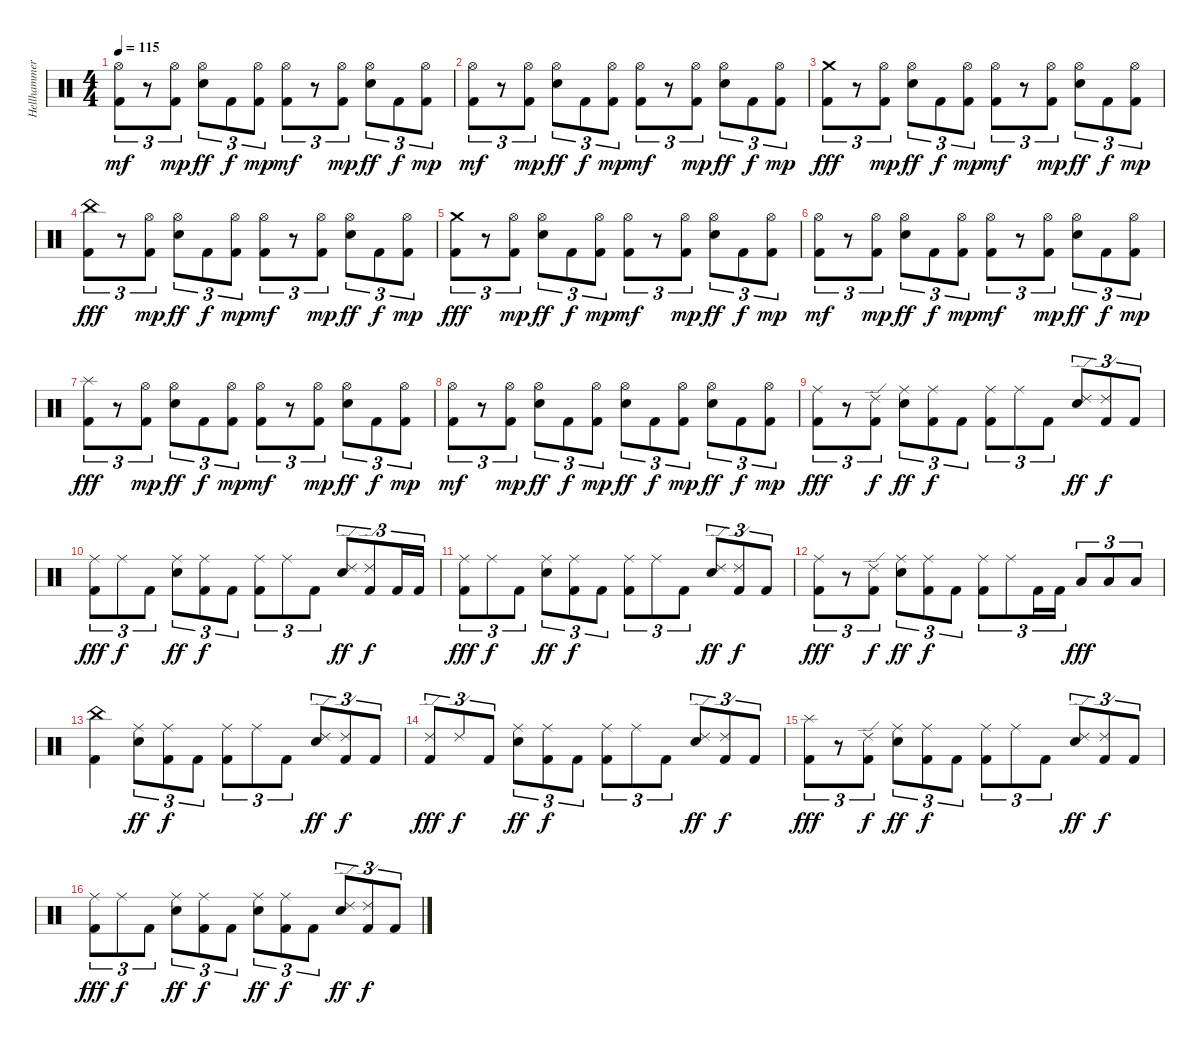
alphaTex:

\track ("Hellhammer" "Hellhammer") {instrument percussion}
\staff {score}
\articulation defaults
\ts (4 4)
\tempo 115
\clef neutral
\ks c
("Hi-Hat (open)" "Kick (hit) 2").8{tu (3 2) dy mf} r.8{tu (3 2)} ("Hi-Hat (open)" "Kick (hit) 2").8{tu (3 2) dy mp} ("Hi-Hat (open)" "Electric Snare (hit)").8{tu (3 2) dy ff} "Kick (hit) 2".8{tu (3 2) dy f} ("Hi-Hat (open)" "Kick (hit) 2").8{tu (3 2) dy mp} ("Hi-Hat (open)" "Kick (hit) 2").8{tu (3 2) dy mf} r.8{tu (3 2)} ("Hi-Hat (open)" "Kick (hit) 2").8{tu (3 2) dy mp} ("Hi-Hat (open)" "Electric Snare (hit)").8{tu (3 2) dy ff} "Kick (hit) 2".8{tu (3 2) dy f} ("Hi-Hat (open)" "Kick (hit) 2").8{tu (3 2) dy mp} |
("Hi-Hat (open)" "Kick (hit) 2").8{tu (3 2) dy mf} r.8{tu (3 2)} ("Hi-Hat (open)" "Kick (hit) 2").8{tu (3 2) dy mp} ("Hi-Hat (open)" "Electric Snare (hit)").8{tu (3 2) dy ff} "Kick (hit) 2".8{tu (3 2) dy f} ("Hi-Hat (open)" "Kick (hit) 2").8{tu (3 2) dy mp} ("Hi-Hat (open)" "Kick (hit) 2").8{tu (3 2) dy mf} r.8{tu (3 2)} ("Hi-Hat (open)" "Kick (hit) 2").8{tu (3 2) dy mp} ("Hi-Hat (open)" "Electric Snare (hit)").8{tu (3 2) dy ff} "Kick (hit) 2".8{tu (3 2) dy f} ("Hi-Hat (open)" "Kick (hit) 2").8{tu (3 2) dy mp} |
("Crash medium (hit)" "Kick (hit) 2").8{tu (3 2) dy fff} r.8{tu (3 2)} ("Hi-Hat (open)" "Kick (hit) 2").8{tu (3 2) dy mp} ("Hi-Hat (open)" "Electric Snare (hit)").8{tu (3 2) dy ff} "Kick (hit) 2".8{tu (3 2) dy f} ("Hi-Hat (open)" "Kick (hit) 2").8{tu (3 2) dy mp} ("Hi-Hat (open)" "Kick (hit) 2").8{tu (3 2) dy mf} r.8{tu (3 2)} ("Hi-Hat (open)" "Kick (hit) 2").8{tu (3 2) dy mp} ("Hi-Hat (open)" "Electric Snare (hit)").8{tu (3 2) dy ff} "Kick (hit) 2".8{tu (3 2) dy f} ("Hi-Hat (open)" "Kick (hit) 2").8{tu (3 2) dy mp} |
("China (hit)" "Kick (hit) 2").8{tu (3 2) dy fff} r.8{tu (3 2)} ("Hi-Hat (open)" "Kick (hit) 2").8{tu (3 2) dy mp} ("Hi-Hat (open)" "Electric Snare (hit)").8{tu (3 2) dy ff} "Kick (hit) 2".8{tu (3 2) dy f} ("Hi-Hat (open)" "Kick (hit) 2").8{tu (3 2) dy mp} ("Hi-Hat (open)" "Kick (hit) 2").8{tu (3 2) dy mf} r.8{tu (3 2)} ("Hi-Hat (open)" "Kick (hit) 2").8{tu (3 2) dy mp} ("Hi-Hat (open)" "Electric Snare (hit)").8{tu (3 2) dy ff} "Kick (hit) 2".8{tu (3 2) dy f} ("Hi-Hat (open)" "Kick (hit) 2").8{tu (3 2) dy mp} |
("Crash medium (hit)" "Kick (hit) 2").8{tu (3 2) dy fff} r.8{tu (3 2)} ("Hi-Hat (open)" "Kick (hit) 2").8{tu (3 2) dy mp} ("Hi-Hat (open)" "Electric Snare (hit)").8{tu (3 2) dy ff} "Kick (hit) 2".8{tu (3 2) dy f} ("Hi-Hat (open)" "Kick (hit) 2").8{tu (3 2) dy mp} ("Hi-Hat (open)" "Kick (hit) 2").8{tu (3 2) dy mf} r.8{tu (3 2)} ("Hi-Hat (open)" "Kick (hit) 2").8{tu (3 2) dy mp} ("Hi-Hat (open)" "Electric Snare (hit)").8{tu (3 2) dy ff} "Kick (hit) 2".8{tu (3 2) dy f} ("Hi-Hat (open)" "Kick (hit) 2").8{tu (3 2) dy mp} |
("Hi-Hat (open)" "Kick (hit) 2").8{tu (3 2) dy mf} r.8{tu (3 2)} ("Hi-Hat (open)" "Kick (hit) 2").8{tu (3 2) dy mp} ("Hi-Hat (open)" "Electric Snare (hit)").8{tu (3 2) dy ff} "Kick (hit) 2".8{tu (3 2) dy f} ("Hi-Hat (open)" "Kick (hit) 2").8{tu (3 2) dy mp} ("Hi-Hat (open)" "Kick (hit) 2").8{tu (3 2) dy mf} r.8{tu (3 2)} ("Hi-Hat (open)" "Kick (hit) 2").8{tu (3 2) dy mp} ("Hi-Hat (open)" "Electric Snare (hit)").8{tu (3 2) dy ff} "Kick (hit) 2".8{tu (3 2) dy f} ("Hi-Hat (open)" "Kick (hit) 2").8{tu (3 2) dy mp} |
("Splash (hit)" "Kick (hit) 2").8{tu (3 2) dy fff} r.8{tu (3 2)} ("Hi-Hat (open)" "Kick (hit) 2").8{tu (3 2) dy mp} ("Hi-Hat (open)" "Electric Snare (hit)").8{tu (3 2) dy ff} "Kick (hit) 2".8{tu (3 2) dy f} ("Hi-Hat (open)" "Kick (hit) 2").8{tu (3 2) dy mp} ("Hi-Hat (open)" "Kick (hit) 2").8{tu (3 2) dy mf} r.8{tu (3 2)} ("Hi-Hat (open)" "Kick (hit) 2").8{tu (3 2) dy mp} ("Hi-Hat (open)" "Electric Snare (hit)").8{tu (3 2) dy ff} "Kick (hit) 2".8{tu (3 2) dy f} ("Hi-Hat (open)" "Kick (hit) 2").8{tu (3 2) dy mp} |
("Hi-Hat (open)" "Kick (hit) 2").8{tu (3 2) dy mf} r.8{tu (3 2)} ("Hi-Hat (open)" "Kick (hit) 2").8{tu (3 2) dy mp} ("Hi-Hat (open)" "Electric Snare (hit)").8{tu (3 2) dy ff} "Kick (hit) 2".8{tu (3 2) dy f} ("Hi-Hat (open)" "Kick (hit) 2").8{tu (3 2) dy mp} ("Hi-Hat (open)" "Electric Snare (hit)").8{tu (3 2) dy ff} "Kick (hit) 2".8{tu (3 2) dy f} ("Hi-Hat (open)" "Kick (hit) 2").8{tu (3 2) dy mp} ("Hi-Hat (open)" "Electric Snare (hit)").8{tu (3 2) dy ff} "Kick (hit) 2".8{tu (3 2) dy f} ("Hi-Hat (open)" "Kick (hit) 2").8{tu (3 2) dy mp} |
("Ride (middle)" "Kick (hit) 2").8{tu (3 2) dy fff} r.8{tu (3 2)} ("Ride (edge) 2" "Kick (hit) 2").8{tu (3 2) dy f} ("Ride (middle)" "Electric Snare (hit)").8{tu (3 2) dy ff} ("Ride (middle)" "Kick (hit) 2").8{tu (3 2) dy f} "Kick (hit) 2".8{tu (3 2)} ("Ride (middle)" "Kick (hit) 2").8{tu (3 2)} "Ride (middle)".8{tu (3 2)} "Kick (hit) 2".8{tu (3 2)} ("Ride (edge) 2" "Electric Snare (hit)").8{tu (3 2) dy ff} ("Ride (edge) 2" "Kick (hit) 2").8{tu (3 2) dy f} "Kick (hit) 2".8{tu (3 2)} |
("Ride (middle)" "Kick (hit) 2").8{tu (3 2) dy fff} "Ride (middle)".8{tu (3 2) dy f} "Kick (hit) 2".8{tu (3 2)} ("Ride (middle)" "Electric Snare (hit)").8{tu (3 2) dy ff} ("Ride (middle)" "Kick (hit) 2").8{tu (3 2) dy f} "Kick (hit) 2".8{tu (3 2)} ("Ride (middle)" "Kick (hit) 2").8{tu (3 2)} "Ride (middle)".8{tu (3 2)} "Kick (hit) 2".8{tu (3 2)} ("Ride (edge) 2" "Electric Snare (hit)").8{tu (3 2) dy ff} ("Ride (edge) 2" "Kick (hit) 2").8{tu (3 2) dy f} "Kick (hit) 2".16{tu (3 2)} "Kick (hit) 2".16{tu (3 2)} |
("Ride (middle)" "Kick (hit) 2").8{tu (3 2) dy fff} "Ride (middle)".8{tu (3 2) dy f} "Kick (hit) 2".8{tu (3 2)} ("Ride (middle)" "Electric Snare (hit)").8{tu (3 2) dy ff} ("Ride (middle)" "Kick (hit) 2").8{tu (3 2) dy f} "Kick (hit) 2".8{tu (3 2)} ("Ride (middle)" "Kick (hit) 2").8{tu (3 2)} "Ride (middle)".8{tu (3 2)} "Kick (hit) 2".8{tu (3 2)} ("Ride (edge) 2" "Electric Snare (hit)").8{tu (3 2) dy ff} ("Ride (edge) 2" "Kick (hit) 2").8{tu (3 2) dy f} "Kick (hit) 2".8{tu (3 2)} |
("Ride (middle)" "Kick (hit) 2").8{tu (3 2) dy fff} r.8{tu (3 2)} ("Ride (edge) 2" "Kick (hit) 2").8{tu (3 2) dy f} ("Ride (middle)" "Electric Snare (hit)").8{tu (3 2) dy ff} ("Ride (middle)" "Kick (hit) 2").8{tu (3 2) dy f} "Kick (hit) 2".8{tu (3 2)} ("Ride (middle)" "Kick (hit) 2").8{tu (3 2)} "Ride (middle)".8{tu (3 2)} "Kick (hit) 2".16{tu (3 2)} "Kick (hit) 2".16{tu (3 2)} "Low Tom (hit)".8{tu (3 2) dy fff} "Low Tom (hit)".8{tu (3 2)} "Low Tom (hit)".8{tu (3 2)} |
("China (hit)" "Kick (hit) 2").4 ("Ride (middle)" "Electric Snare (hit)").8{tu (3 2) dy ff} ("Ride (middle)" "Kick (hit) 2").8{tu (3 2) dy f} "Kick (hit) 2".8{tu (3 2)} ("Ride (middle)" "Kick (hit) 2").8{tu (3 2)} "Ride (middle)".8{tu (3 2)} "Kick (hit) 2".8{tu (3 2)} ("Ride (edge) 2" "Electric Snare (hit)").8{tu (3 2) dy ff} ("Ride (edge) 2" "Kick (hit) 2").8{tu (3 2) dy f} "Kick (hit) 2".8{tu (3 2)} |
("Ride (edge) 2" "Kick (hit) 2").8{tu (3 2) dy fff} "Ride (edge) 2".8{tu (3 2) dy f} "Kick (hit) 2".8{tu (3 2)} ("Ride (middle)" "Electric Snare (hit)").8{tu (3 2) dy ff} ("Ride (middle)" "Kick (hit) 2").8{tu (3 2) dy f} "Kick (hit) 2".8{tu (3 2)} ("Ride (middle)" "Kick (hit) 2").8{tu (3 2)} "Ride (middle)".8{tu (3 2)} "Kick (hit) 2".8{tu (3 2)} ("Ride (edge) 2" "Electric Snare (hit)").8{tu (3 2) dy ff} ("Ride (edge) 2" "Kick (hit) 2").8{tu (3 2) dy f} "Kick (hit) 2".8{tu (3 2)} |
("Splash (hit)" "Kick (hit) 2").8{tu (3 2) dy fff} r.8{tu (3 2)} ("Ride (edge) 2" "Kick (hit) 2").8{tu (3 2) dy f} ("Ride (middle)" "Electric Snare (hit)").8{tu (3 2) dy ff} ("Ride (middle)" "Kick (hit) 2").8{tu (3 2) dy f} "Kick (hit) 2".8{tu (3 2)} ("Ride (middle)" "Kick (hit) 2").8{tu (3 2)} "Ride (middle)".8{tu (3 2)} "Kick (hit) 2".8{tu (3 2)} ("Ride (edge) 2" "Electric Snare (hit)").8{tu (3 2) dy ff} ("Ride (edge) 2" "Kick (hit) 2").8{tu (3 2) dy f} "Kick (hit) 2".8{tu (3 2)} |
("Ride (middle)" "Kick (hit) 2").8{tu (3 2) dy fff} "Ride (middle)".8{tu (3 2) dy f} "Kick (hit) 2".8{tu (3 2)} ("Ride (middle)" "Electric Snare (hit)").8{tu (3 2) dy ff} ("Ride (middle)" "Kick (hit) 2").8{tu (3 2) dy f} "Kick (hit) 2".8{tu (3 2)} ("Ride (middle)" "Electric Snare (hit)").8{tu (3 2) dy ff} ("Ride (middle)" "Kick (hit) 2").8{tu (3 2) dy f} "Kick (hit) 2".8{tu (3 2)} ("Ride (edge) 2" "Electric Snare (hit)").8{tu (3 2) dy ff} ("Ride (edge) 2" "Kick (hit) 2").8{tu (3 2) dy f} "Kick (hit) 2".8{tu (3 2)}
